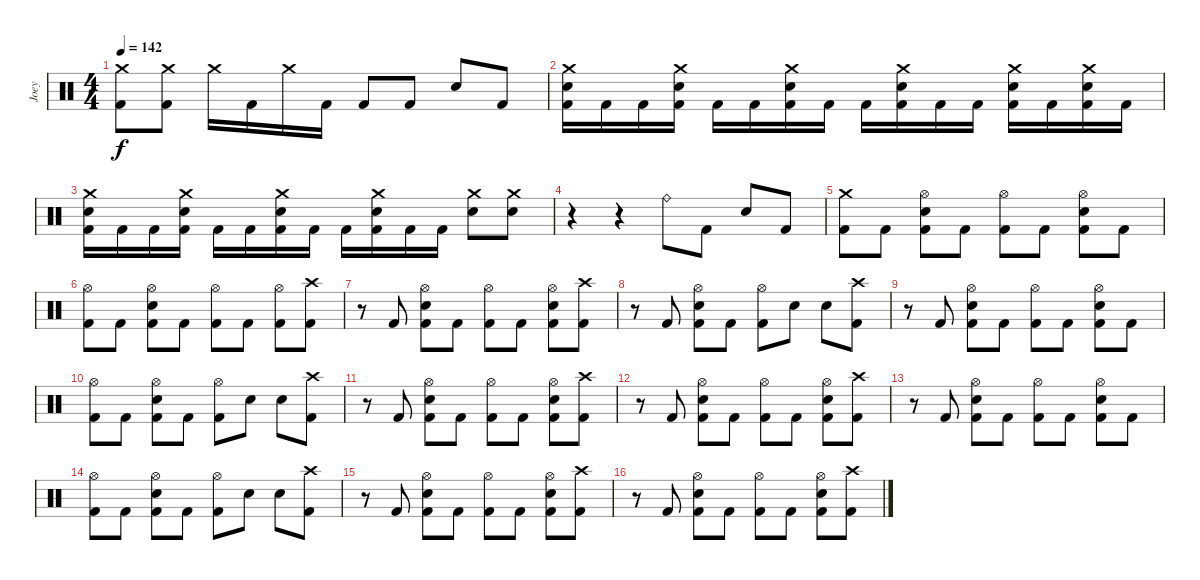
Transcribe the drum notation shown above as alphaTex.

\track ("Joey" "Joey") {instrument percussion}
\staff {score}
\articulation defaults
\ts (4 4)
\tempo 142
\clef neutral
\ks c
("Crash medium (hit)" "Kick (hit) 2").8{dy f} ("Crash medium (hit)" "Kick (hit) 2").8 "Crash medium (hit)".16 "Kick (hit) 2".16 "Crash medium (hit)".16 "Kick (hit) 2".16 "Kick (hit) 2".8 "Kick (hit) 2".8 "Electric Snare (hit)".8 "Kick (hit) 2".8 |
("Crash medium (hit)" "Electric Snare (hit)" "Kick (hit) 2").16 "Kick (hit) 2".16 "Kick (hit) 2".16 ("Crash medium (hit)" "Electric Snare (hit)" "Kick (hit) 2").16 "Kick (hit) 2".16 "Kick (hit) 2".16 ("Crash medium (hit)" "Electric Snare (hit)" "Kick (hit) 2").16 "Kick (hit) 2".16 "Kick (hit) 2".16 ("Crash medium (hit)" "Electric Snare (hit)" "Kick (hit) 2").16 "Kick (hit) 2".16 "Kick (hit) 2".16 ("Crash medium (hit)" "Electric Snare (hit)" "Kick (hit) 2").16 "Kick (hit) 2".16 ("Crash medium (hit)" "Electric Snare (hit)" "Kick (hit) 2").16 "Kick (hit) 2".16 |
("Crash medium (hit)" "Electric Snare (hit)" "Kick (hit) 2").16 "Kick (hit) 2".16 "Kick (hit) 2".16 ("Crash medium (hit)" "Electric Snare (hit)" "Kick (hit) 2").16 "Kick (hit) 2".16 "Kick (hit) 2".16 ("Crash medium (hit)" "Electric Snare (hit)" "Kick (hit) 2").16 "Kick (hit) 2".16 "Kick (hit) 2".16 ("Crash medium (hit)" "Electric Snare (hit)" "Kick (hit) 2").16 "Kick (hit) 2".16 "Kick (hit) 2".16 ("Crash medium (hit)" "Electric Snare (hit)").8 ("Crash medium (hit)" "Electric Snare (hit)").8 |
r.4 r.4 "Ride (bell)".8 "Kick (hit) 2".8 "Electric Snare (hit)".8 "Kick (hit) 2".8 |
("Crash medium (hit)" "Kick (hit) 2").8 "Kick (hit) 2".8 ("Hi-Hat (open)" "Electric Snare (hit)" "Kick (hit) 2").8 "Kick (hit) 2".8 ("Hi-Hat (open)" "Kick (hit) 2").8 "Kick (hit) 2".8 ("Hi-Hat (open)" "Electric Snare (hit)" "Kick (hit) 2").8 "Kick (hit) 2".8 |
("Hi-Hat (open)" "Kick (hit) 2").8 "Kick (hit) 2".8 ("Hi-Hat (open)" "Electric Snare (hit)" "Kick (hit) 2").8 "Kick (hit) 2".8 ("Hi-Hat (open)" "Kick (hit) 2").8 "Kick (hit) 2".8 ("Hi-Hat (open)" "Kick (hit) 2").8 ("Crash high (hit)" "Kick (hit) 2").8 |
r.8 "Kick (hit) 2".8 ("Hi-Hat (open)" "Electric Snare (hit)" "Kick (hit) 2").8 "Kick (hit) 2".8 ("Hi-Hat (open)" "Kick (hit) 2").8 "Kick (hit) 2".8 ("Hi-Hat (open)" "Electric Snare (hit)" "Kick (hit) 2").8 ("Crash high (hit)" "Kick (hit) 2").8 |
r.8 "Kick (hit) 2".8 ("Hi-Hat (open)" "Electric Snare (hit)" "Kick (hit) 2").8 "Kick (hit) 2".8 ("Hi-Hat (open)" "Kick (hit) 2").8 "Electric Snare (hit)".8 "Electric Snare (hit)".8 ("Crash high (hit)" "Kick (hit) 2").8 |
r.8 "Kick (hit) 2".8 ("Hi-Hat (open)" "Electric Snare (hit)" "Kick (hit) 2").8 "Kick (hit) 2".8 ("Hi-Hat (open)" "Kick (hit) 2").8 "Kick (hit) 2".8 ("Hi-Hat (open)" "Electric Snare (hit)" "Kick (hit) 2").8 "Kick (hit) 2".8 |
("Hi-Hat (open)" "Kick (hit) 2").8 "Kick (hit) 2".8 ("Hi-Hat (open)" "Electric Snare (hit)" "Kick (hit) 2").8 "Kick (hit) 2".8 ("Hi-Hat (open)" "Kick (hit) 2").8 "Electric Snare (hit)".8 "Electric Snare (hit)".8 ("Crash high (hit)" "Kick (hit) 2").8 |
r.8 "Kick (hit) 2".8 ("Hi-Hat (open)" "Electric Snare (hit)" "Kick (hit) 2").8 "Kick (hit) 2".8 ("Hi-Hat (open)" "Kick (hit) 2").8 "Kick (hit) 2".8 ("Hi-Hat (open)" "Electric Snare (hit)" "Kick (hit) 2").8 ("Crash high (hit)" "Kick (hit) 2").8 |
r.8 "Kick (hit) 2".8 ("Hi-Hat (open)" "Electric Snare (hit)" "Kick (hit) 2").8 "Kick (hit) 2".8 ("Hi-Hat (open)" "Kick (hit) 2").8 "Kick (hit) 2".8 ("Hi-Hat (open)" "Electric Snare (hit)" "Kick (hit) 2").8 ("Crash high (hit)" "Kick (hit) 2").8 |
r.8 "Kick (hit) 2".8 ("Hi-Hat (open)" "Electric Snare (hit)" "Kick (hit) 2").8 "Kick (hit) 2".8 ("Hi-Hat (open)" "Kick (hit) 2").8 "Kick (hit) 2".8 ("Hi-Hat (open)" "Electric Snare (hit)" "Kick (hit) 2").8 "Kick (hit) 2".8 |
("Hi-Hat (open)" "Kick (hit) 2").8 "Kick (hit) 2".8 ("Hi-Hat (open)" "Electric Snare (hit)" "Kick (hit) 2").8 "Kick (hit) 2".8 ("Hi-Hat (open)" "Kick (hit) 2").8 "Electric Snare (hit)".8 "Electric Snare (hit)".8 ("Crash high (hit)" "Kick (hit) 2").8 |
r.8 "Kick (hit) 2".8 ("Hi-Hat (open)" "Electric Snare (hit)" "Kick (hit) 2").8 "Kick (hit) 2".8 ("Hi-Hat (open)" "Kick (hit) 2").8 "Kick (hit) 2".8 ("Hi-Hat (open)" "Electric Snare (hit)" "Kick (hit) 2").8 ("Crash high (hit)" "Kick (hit) 2").8 |
r.8 "Kick (hit) 2".8 ("Hi-Hat (open)" "Electric Snare (hit)" "Kick (hit) 2").8 "Kick (hit) 2".8 ("Hi-Hat (open)" "Kick (hit) 2").8 "Kick (hit) 2".8 ("Hi-Hat (open)" "Electric Snare (hit)" "Kick (hit) 2").8 ("Crash high (hit)" "Kick (hit) 2").8
